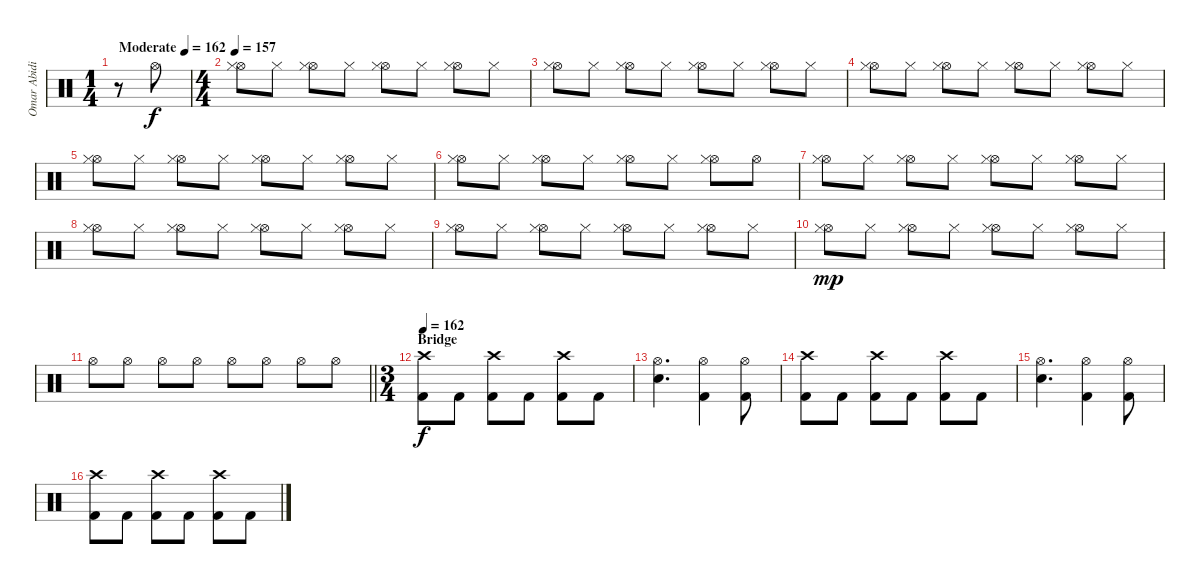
\track ("Omar Abidi" "Omar Abidi") {instrument percussion}
\staff {score}
\articulation defaults
\ts (1 4)
\tempo (162 "Moderate")
\clef neutral
\ks c
r.8{dy f volume 10} "Hi-Hat (open)".8 |
\ts (4 4)
\tempo 157
("Hi-Hat (open)" "Hi-Hat (closed)").8 "Hi-Hat (closed)".8 ("Hi-Hat (open)" "Hi-Hat (closed)").8 "Hi-Hat (closed)".8 ("Hi-Hat (open)" "Hi-Hat (closed)").8 "Hi-Hat (closed)".8 ("Hi-Hat (open)" "Hi-Hat (closed)").8 "Hi-Hat (closed)".8 |
("Hi-Hat (open)" "Hi-Hat (closed)").8 "Hi-Hat (closed)".8 ("Hi-Hat (open)" "Hi-Hat (closed)").8 "Hi-Hat (closed)".8 ("Hi-Hat (open)" "Hi-Hat (closed)").8 "Hi-Hat (closed)".8 ("Hi-Hat (open)" "Hi-Hat (closed)").8 "Hi-Hat (closed)".8 |
("Hi-Hat (open)" "Hi-Hat (closed)").8 "Hi-Hat (closed)".8 ("Hi-Hat (open)" "Hi-Hat (closed)").8 "Hi-Hat (closed)".8 ("Hi-Hat (open)" "Hi-Hat (closed)").8 "Hi-Hat (closed)".8 ("Hi-Hat (open)" "Hi-Hat (closed)").8 "Hi-Hat (closed)".8 |
("Hi-Hat (open)" "Hi-Hat (closed)").8 "Hi-Hat (closed)".8 ("Hi-Hat (open)" "Hi-Hat (closed)").8 "Hi-Hat (closed)".8 ("Hi-Hat (open)" "Hi-Hat (closed)").8 "Hi-Hat (closed)".8 ("Hi-Hat (open)" "Hi-Hat (closed)").8 "Hi-Hat (closed)".8 |
("Hi-Hat (open)" "Hi-Hat (closed)").8 "Hi-Hat (closed)".8 ("Hi-Hat (open)" "Hi-Hat (closed)").8 "Hi-Hat (closed)".8 ("Hi-Hat (open)" "Hi-Hat (closed)").8 "Hi-Hat (closed)".8 ("Hi-Hat (open)" "Hi-Hat (closed)").8 "Hi-Hat (open)".8 |
("Hi-Hat (open)" "Hi-Hat (closed)").8 "Hi-Hat (closed)".8 ("Hi-Hat (open)" "Hi-Hat (closed)").8 "Hi-Hat (closed)".8 ("Hi-Hat (open)" "Hi-Hat (closed)").8 "Hi-Hat (closed)".8 ("Hi-Hat (open)" "Hi-Hat (closed)").8 "Hi-Hat (closed)".8 |
("Hi-Hat (open)" "Hi-Hat (closed)").8 "Hi-Hat (closed)".8 ("Hi-Hat (open)" "Hi-Hat (closed)").8 "Hi-Hat (closed)".8 ("Hi-Hat (open)" "Hi-Hat (closed)").8 "Hi-Hat (closed)".8 ("Hi-Hat (open)" "Hi-Hat (closed)").8 "Hi-Hat (closed)".8 |
("Hi-Hat (open)" "Hi-Hat (closed)").8 "Hi-Hat (closed)".8 ("Hi-Hat (open)" "Hi-Hat (closed)").8 "Hi-Hat (closed)".8 ("Hi-Hat (open)" "Hi-Hat (closed)").8 "Hi-Hat (closed)".8 ("Hi-Hat (open)" "Hi-Hat (closed)").8 "Hi-Hat (closed)".8 |
("Hi-Hat (open)" "Hi-Hat (closed)").8{dy mp} "Hi-Hat (closed)".8 ("Hi-Hat (open)" "Hi-Hat (closed)").8 "Hi-Hat (closed)".8 ("Hi-Hat (open)" "Hi-Hat (closed)").8 "Hi-Hat (closed)".8 ("Hi-Hat (open)" "Hi-Hat (closed)").8 "Hi-Hat (closed)".8 |
\barLineRight lightlight "Hi-Hat (open)".8 "Hi-Hat (open)".8 "Hi-Hat (open)".8 "Hi-Hat (open)".8 "Hi-Hat (open)".8 "Hi-Hat (open)".8 "Hi-Hat (open)".8 "Hi-Hat (open)".8
|
\ts (3 4)
\section ("" "Bridge")
\tempo 162
("Crash high (hit)" "Kick (hit) 2").8{dy f volume 16} "Kick (hit) 2".8 ("Crash high (hit)" "Kick (hit) 2").8 "Kick (hit) 2".8 ("Crash high (hit)" "Kick (hit) 2").8 "Kick (hit) 2".8 |
("Hi-Hat (open)" "Electric Snare (hit)").4{d} ("Hi-Hat (open)" "Kick (hit) 2").4 ("Hi-Hat (open)" "Kick (hit) 2").8 |
("Crash high (hit)" "Kick (hit) 2").8 "Kick (hit) 2".8 ("Crash high (hit)" "Kick (hit) 2").8 "Kick (hit) 2".8 ("Crash high (hit)" "Kick (hit) 2").8 "Kick (hit) 2".8 |
("Hi-Hat (open)" "Electric Snare (hit)").4{d} ("Hi-Hat (open)" "Kick (hit) 2").4 ("Hi-Hat (open)" "Kick (hit) 2").8 |
("Crash high (hit)" "Kick (hit) 2").8 "Kick (hit) 2".8 ("Crash high (hit)" "Kick (hit) 2").8 "Kick (hit) 2".8 ("Crash high (hit)" "Kick (hit) 2").8 "Kick (hit) 2".8
